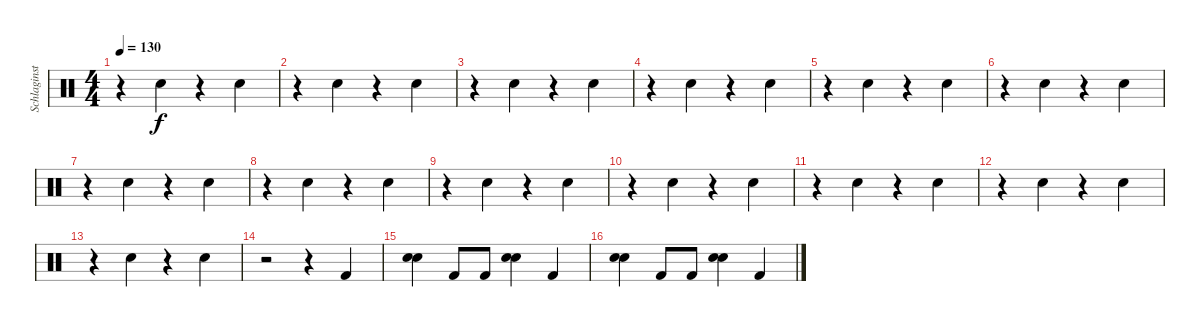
\track ("Schlaginstrumente - Auswahl" "Schlaginst") {instrument percussion}
\staff {score}
\articulation defaults
\ts (4 4)
\tempo 130
\clef neutral
\ks c
r.4{dy f} "Snare (hit) 2".4 r.4 "Snare (hit) 2".4 |
r.4 "Snare (hit) 2".4 r.4 "Snare (hit) 2".4 |
r.4 "Snare (hit) 2".4 r.4 "Snare (hit) 2".4 |
r.4 "Snare (hit) 2".4 r.4 "Snare (hit) 2".4 |
r.4 "Snare (hit) 2".4 r.4 "Snare (hit) 2".4 |
r.4 "Snare (hit) 2".4 r.4 "Snare (hit) 2".4 |
r.4 "Snare (hit) 2".4 r.4 "Snare (hit) 2".4 |
r.4 "Snare (hit) 2".4 r.4 "Snare (hit) 2".4 |
r.4 "Snare (hit) 2".4 r.4 "Snare (hit) 2".4 |
r.4 "Snare (hit) 2".4 r.4 "Snare (hit) 2".4 |
r.4 "Snare (hit) 2".4 r.4 "Snare (hit) 2".4 |
r.4 "Snare (hit) 2".4 r.4 "Snare (hit) 2".4 |
r.4 "Snare (hit) 2".4 r.4 "Snare (hit) 2".4 |
r.2 r.4 "Kick (hit) 2".4 |
("Snare (hit) 2" "Electric Snare (hit)").4 "Kick (hit) 2".8 "Kick (hit) 2".8 ("Snare (hit) 2" "Electric Snare (hit)").4 "Kick (hit) 2".4 |
("Snare (hit) 2" "Electric Snare (hit)").4 "Kick (hit) 2".8 "Kick (hit) 2".8 ("Snare (hit) 2" "Electric Snare (hit)").4 "Kick (hit) 2".4
